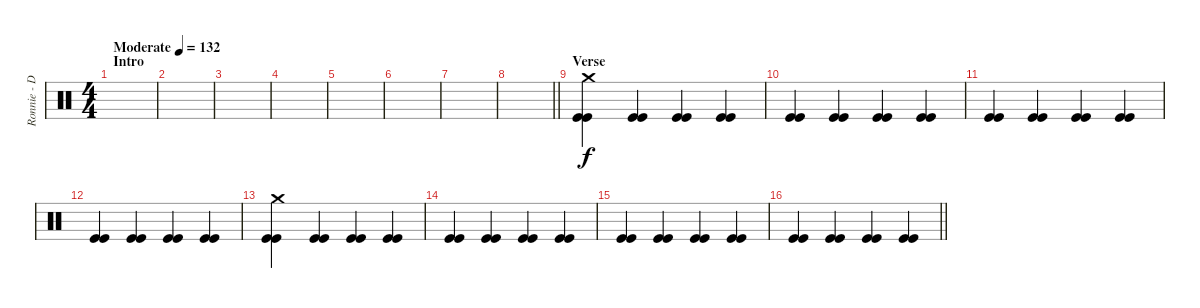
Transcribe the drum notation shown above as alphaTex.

\track ("Ronnie - Drums" "Ronnie - D") {instrument percussion}
\staff {score}
\articulation defaults
\ts (4 4)
\section ("" "Intro")
\tempo (132 "Moderate")
\clef neutral
\ks c
|
|
|
|
|
|
|
\barLineRight lightlight
|
\section ("" "Verse")
("Crash medium (hit)" "Kick (hit)" "Kick (hit)").4 ("Kick (hit)" "Kick (hit)").4 ("Kick (hit)" "Kick (hit)").4 ("Kick (hit)" "Kick (hit)").4 |
("Kick (hit)" "Kick (hit)").4 ("Kick (hit)" "Kick (hit)").4 ("Kick (hit)" "Kick (hit)").4 ("Kick (hit)" "Kick (hit)").4 |
("Kick (hit)" "Kick (hit)").4 ("Kick (hit)" "Kick (hit)").4 ("Kick (hit)" "Kick (hit)").4 ("Kick (hit)" "Kick (hit)").4 |
("Kick (hit)" "Kick (hit)").4 ("Kick (hit)" "Kick (hit)").4 ("Kick (hit)" "Kick (hit)").4 ("Kick (hit)" "Kick (hit)").4 |
("Crash medium (hit)" "Kick (hit)" "Kick (hit)").4 ("Kick (hit)" "Kick (hit)").4 ("Kick (hit)" "Kick (hit)").4 ("Kick (hit)" "Kick (hit)").4 |
("Kick (hit)" "Kick (hit)").4 ("Kick (hit)" "Kick (hit)").4 ("Kick (hit)" "Kick (hit)").4 ("Kick (hit)" "Kick (hit)").4 |
("Kick (hit)" "Kick (hit)").4 ("Kick (hit)" "Kick (hit)").4 ("Kick (hit)" "Kick (hit)").4 ("Kick (hit)" "Kick (hit)").4 |
\barLineRight lightlight
("Kick (hit)" "Kick (hit)").4 ("Kick (hit)" "Kick (hit)").4 ("Kick (hit)" "Kick (hit)").4 ("Kick (hit)" "Kick (hit)").4
